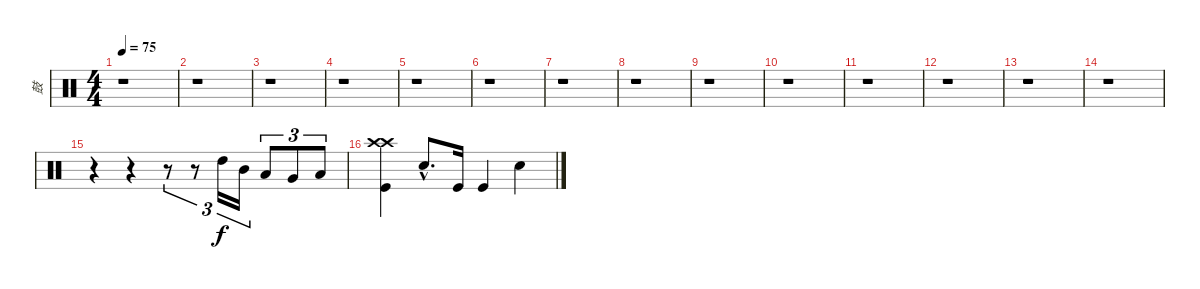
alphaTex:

\track ("鼓" "鼓") {instrument percussion}
\staff {score}
\articulation defaults
\ts (4 4)
\tempo 75
\clef neutral
\ks c
r.1{dy f} |
r.1 |
r.1 |
r.1 |
r.1 |
r.1 |
r.1 |
r.1 |
r.1 |
r.1 |
r.1 |
r.1 |
r.1 |
r.1 |
r.4 r.4 r.8{tu (3 2)} r.8{tu (3 2)} "High Tom (hit)".16{tu (3 2)} "Mid Tom (hit)".16{tu (3 2)} "Low Tom (hit)".8{tu (3 2)} "Very Low Tom (hit)".8{tu (3 2)} "Low Floor Tom (hit)".8{tu (3 2)} |
("Crash high (hit)" "Crash high (hit)" "Kick (hit)").4 "Snare (hit) 2"{hac}.8{d} "Kick (hit)".16 "Kick (hit)".4 "Snare (hit) 2".4
